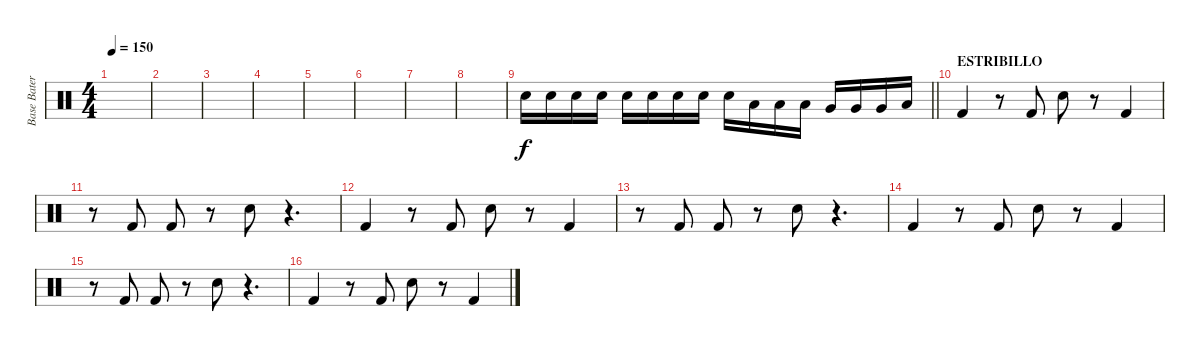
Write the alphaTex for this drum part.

\track ("Base Batería" "Base Bater") {instrument percussion}
\staff {score}
\articulation defaults
\ts (4 4)
\tempo 150
\clef neutral
\ks c
|
|
|
|
|
|
|
|
\barLineRight lightlight "Electric Snare (hit)".16 "Electric Snare (hit)".16 "Electric Snare (hit)".16 "Electric Snare (hit)".16 "Electric Snare (hit)".16 "Electric Snare (hit)".16 "Electric Snare (hit)".16 "Electric Snare (hit)".16 "Electric Snare (hit)".16 "Low Tom (hit)".16 "Low Tom (hit)".16 "Low Tom (hit)".16 "Very Low Tom (hit)".16 "Very Low Tom (hit)".16 "Very Low Tom (hit)".16 "Low Floor Tom (hit)".16
|
\section ("" "ESTRIBILLO")
"Kick (hit) 2".4 r.8 "Kick (hit) 2".8 "Electric Snare (hit)".8 r.8 "Kick (hit) 2".4 |
r.8 "Kick (hit) 2".8 "Kick (hit) 2".8 r.8 "Electric Snare (hit)".8 r.4{d} |
"Kick (hit) 2".4 r.8 "Kick (hit) 2".8 "Electric Snare (hit)".8 r.8 "Kick (hit) 2".4 |
r.8 "Kick (hit) 2".8 "Kick (hit) 2".8 r.8 "Electric Snare (hit)".8 r.4{d} |
"Kick (hit) 2".4 r.8 "Kick (hit) 2".8 "Electric Snare (hit)".8 r.8 "Kick (hit) 2".4 |
r.8 "Kick (hit) 2".8 "Kick (hit) 2".8 r.8 "Electric Snare (hit)".8 r.4{d} |
"Kick (hit) 2".4 r.8 "Kick (hit) 2".8 "Electric Snare (hit)".8 r.8 "Kick (hit) 2".4
